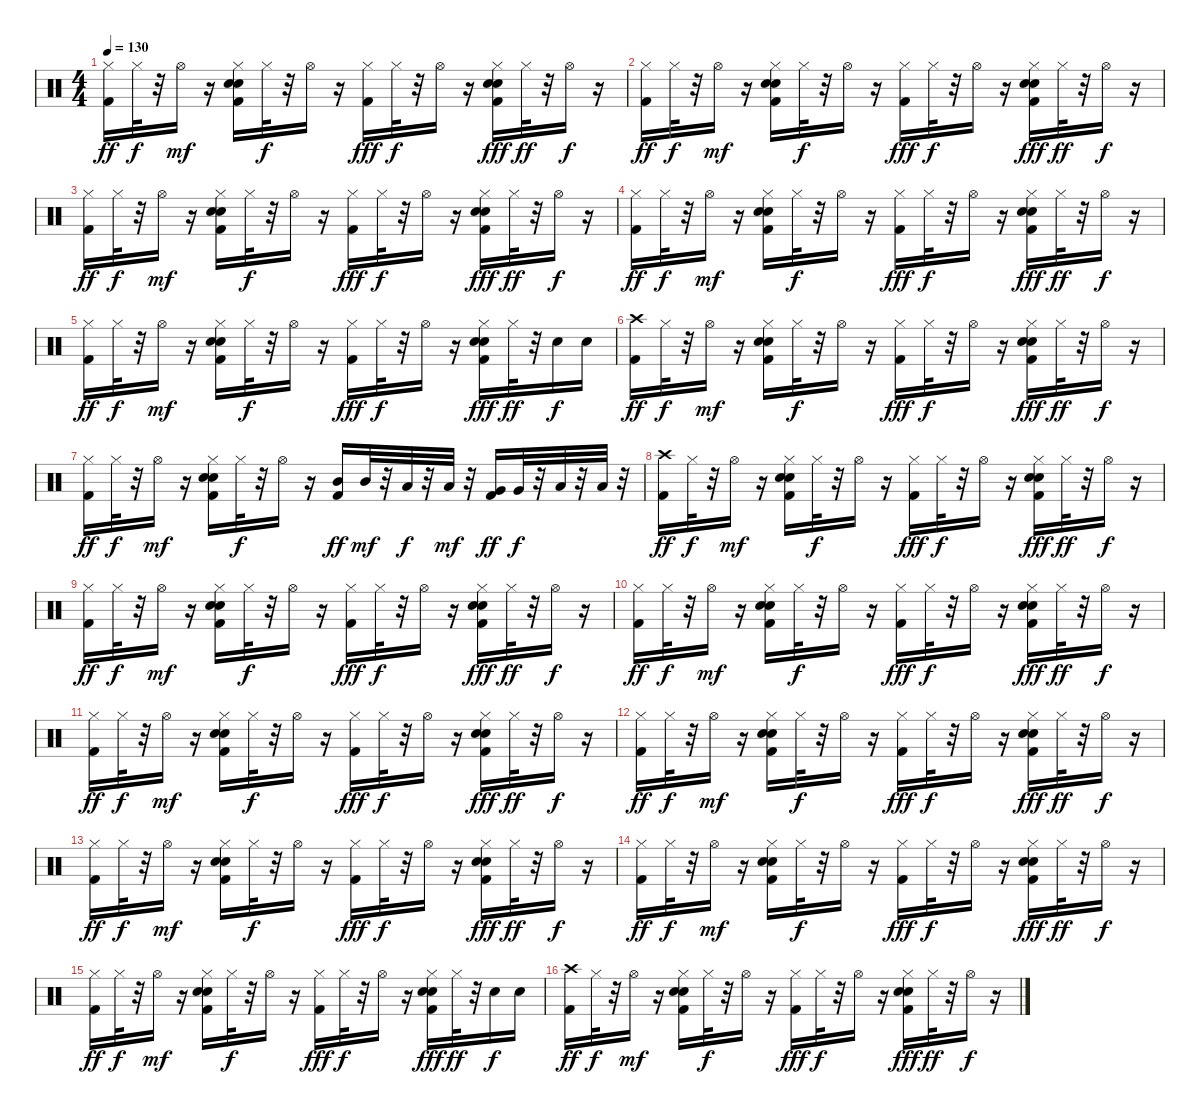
\track "" {instrument percussion}
\staff {score}
\articulation defaults
\ts (4 4)
\tempo 130
\clef neutral
\ks c
("Kick (hit) 2" "Hi-Hat (closed)").16{dy ff} "Hi-Hat (closed)".32{dy f} r.32 "Hi-Hat (open)".16{dy mf} r.16 ("Kick (hit) 2" "Hand Clap (hit)" "Electric Snare (hit)" "Hi-Hat (closed)").16 "Hi-Hat (closed)".32{dy f} r.32 "Hi-Hat (open)".16 r.16 ("Kick (hit) 2" "Hi-Hat (closed)").16{dy fff} "Hi-Hat (closed)".32{dy f} r.32 "Hi-Hat (open)".16 r.16 ("Kick (hit) 2" "Hand Clap (hit)" "Electric Snare (hit)" "Hi-Hat (closed)").16{dy fff} "Hi-Hat (closed)".32{dy ff} r.32 "Hi-Hat (open)".16{dy f} r.16 |
("Kick (hit) 2" "Hi-Hat (closed)").16{dy ff} "Hi-Hat (closed)".32{dy f} r.32 "Hi-Hat (open)".16{dy mf} r.16 ("Kick (hit) 2" "Hand Clap (hit)" "Electric Snare (hit)" "Hi-Hat (closed)").16 "Hi-Hat (closed)".32{dy f} r.32 "Hi-Hat (open)".16 r.16 ("Kick (hit) 2" "Hi-Hat (closed)").16{dy fff} "Hi-Hat (closed)".32{dy f} r.32 "Hi-Hat (open)".16 r.16 ("Kick (hit) 2" "Hand Clap (hit)" "Electric Snare (hit)" "Hi-Hat (closed)").16{dy fff} "Hi-Hat (closed)".32{dy ff} r.32 "Hi-Hat (open)".16{dy f} r.16 |
("Kick (hit) 2" "Hi-Hat (closed)").16{dy ff} "Hi-Hat (closed)".32{dy f} r.32 "Hi-Hat (open)".16{dy mf} r.16 ("Kick (hit) 2" "Hand Clap (hit)" "Electric Snare (hit)" "Hi-Hat (closed)").16 "Hi-Hat (closed)".32{dy f} r.32 "Hi-Hat (open)".16 r.16 ("Kick (hit) 2" "Hi-Hat (closed)").16{dy fff} "Hi-Hat (closed)".32{dy f} r.32 "Hi-Hat (open)".16 r.16 ("Kick (hit) 2" "Hand Clap (hit)" "Electric Snare (hit)" "Hi-Hat (closed)").16{dy fff} "Hi-Hat (closed)".32{dy ff} r.32 "Hi-Hat (open)".16{dy f} r.16 |
("Kick (hit) 2" "Hi-Hat (closed)").16{dy ff} "Hi-Hat (closed)".32{dy f} r.32 "Hi-Hat (open)".16{dy mf} r.16 ("Kick (hit) 2" "Hand Clap (hit)" "Electric Snare (hit)" "Hi-Hat (closed)").16 "Hi-Hat (closed)".32{dy f} r.32 "Hi-Hat (open)".16 r.16 ("Kick (hit) 2" "Hi-Hat (closed)").16{dy fff} "Hi-Hat (closed)".32{dy f} r.32 "Hi-Hat (open)".16 r.16 ("Kick (hit) 2" "Hand Clap (hit)" "Electric Snare (hit)" "Hi-Hat (closed)").16{dy fff} "Hi-Hat (closed)".32{dy ff} r.32 "Hi-Hat (open)".16{dy f} r.16 |
("Kick (hit) 2" "Hi-Hat (closed)").16{dy ff} "Hi-Hat (closed)".32{dy f} r.32 "Hi-Hat (open)".16{dy mf} r.16 ("Kick (hit) 2" "Hand Clap (hit)" "Electric Snare (hit)" "Hi-Hat (closed)").16 "Hi-Hat (closed)".32{dy f} r.32 "Hi-Hat (open)".16 r.16 ("Kick (hit) 2" "Hi-Hat (closed)").16{dy fff} "Hi-Hat (closed)".32{dy f} r.32 "Hi-Hat (open)".16 r.16 ("Kick (hit) 2" "Hand Clap (hit)" "Electric Snare (hit)" "Hi-Hat (closed)").16{dy fff} "Hi-Hat (closed)".32{dy ff} r.32 "Electric Snare (hit)".16{dy f} "Electric Snare (hit)".16 |
("Kick (hit) 2" "Crash high (hit)").16{dy ff} "Hi-Hat (closed)".32{dy f} r.32 "Hi-Hat (open)".16{dy mf} r.16 ("Kick (hit) 2" "Hand Clap (hit)" "Electric Snare (hit)" "Hi-Hat (closed)").16 "Hi-Hat (closed)".32{dy f} r.32 "Hi-Hat (open)".16 r.16 ("Kick (hit) 2" "Hi-Hat (closed)").16{dy fff} "Hi-Hat (closed)".32{dy f} r.32 "Hi-Hat (open)".16 r.16 ("Kick (hit) 2" "Hand Clap (hit)" "Electric Snare (hit)" "Hi-Hat (closed)").16{dy fff} "Hi-Hat (closed)".32{dy ff} r.32 "Hi-Hat (open)".16{dy f} r.16 |
("Kick (hit) 2" "Hi-Hat (closed)").16{dy ff} "Hi-Hat (closed)".32{dy f} r.32 "Hi-Hat (open)".16{dy mf} r.16 ("Kick (hit) 2" "Hand Clap (hit)" "Electric Snare (hit)" "Hi-Hat (closed)").16 "Hi-Hat (closed)".32{dy f} r.32 "Hi-Hat (open)".16 r.16 ("Kick (hit) 2" "Mid Tom (hit)").16{dy ff} "Mid Tom (hit)".32{dy mf} r.32 "Low Tom (hit)".32{dy f} r.32 "Low Tom (hit)".32{dy mf} r.32 ("Kick (hit) 2" "Very Low Tom (hit)").16{dy ff} "Very Low Tom (hit)".32{dy f} r.32 "Low Floor Tom (hit)".32 r.32 "Low Floor Tom (hit)".32 r.32 |
("Kick (hit) 2" "Crash high (hit)").16{dy ff} "Hi-Hat (closed)".32{dy f} r.32 "Hi-Hat (open)".16{dy mf} r.16 ("Kick (hit) 2" "Hand Clap (hit)" "Electric Snare (hit)" "Hi-Hat (closed)").16 "Hi-Hat (closed)".32{dy f} r.32 "Hi-Hat (open)".16 r.16 ("Kick (hit) 2" "Hi-Hat (closed)").16{dy fff} "Hi-Hat (closed)".32{dy f} r.32 "Hi-Hat (open)".16 r.16 ("Kick (hit) 2" "Hand Clap (hit)" "Electric Snare (hit)" "Hi-Hat (closed)").16{dy fff} "Hi-Hat (closed)".32{dy ff} r.32 "Hi-Hat (open)".16{dy f} r.16 |
("Kick (hit) 2" "Hi-Hat (closed)").16{dy ff} "Hi-Hat (closed)".32{dy f} r.32 "Hi-Hat (open)".16{dy mf} r.16 ("Kick (hit) 2" "Hand Clap (hit)" "Electric Snare (hit)" "Hi-Hat (closed)").16 "Hi-Hat (closed)".32{dy f} r.32 "Hi-Hat (open)".16 r.16 ("Kick (hit) 2" "Hi-Hat (closed)").16{dy fff} "Hi-Hat (closed)".32{dy f} r.32 "Hi-Hat (open)".16 r.16 ("Kick (hit) 2" "Hand Clap (hit)" "Electric Snare (hit)" "Hi-Hat (closed)").16{dy fff} "Hi-Hat (closed)".32{dy ff} r.32 "Hi-Hat (open)".16{dy f} r.16 |
("Kick (hit) 2" "Hi-Hat (closed)").16{dy ff} "Hi-Hat (closed)".32{dy f} r.32 "Hi-Hat (open)".16{dy mf} r.16 ("Kick (hit) 2" "Hand Clap (hit)" "Electric Snare (hit)" "Hi-Hat (closed)").16 "Hi-Hat (closed)".32{dy f} r.32 "Hi-Hat (open)".16 r.16 ("Kick (hit) 2" "Hi-Hat (closed)").16{dy fff} "Hi-Hat (closed)".32{dy f} r.32 "Hi-Hat (open)".16 r.16 ("Kick (hit) 2" "Hand Clap (hit)" "Electric Snare (hit)" "Hi-Hat (closed)").16{dy fff} "Hi-Hat (closed)".32{dy ff} r.32 "Hi-Hat (open)".16{dy f} r.16 |
("Kick (hit) 2" "Hi-Hat (closed)").16{dy ff} "Hi-Hat (closed)".32{dy f} r.32 "Hi-Hat (open)".16{dy mf} r.16 ("Kick (hit) 2" "Hand Clap (hit)" "Electric Snare (hit)" "Hi-Hat (closed)").16 "Hi-Hat (closed)".32{dy f} r.32 "Hi-Hat (open)".16 r.16 ("Kick (hit) 2" "Hi-Hat (closed)").16{dy fff} "Hi-Hat (closed)".32{dy f} r.32 "Hi-Hat (open)".16 r.16 ("Kick (hit) 2" "Hand Clap (hit)" "Electric Snare (hit)" "Hi-Hat (closed)").16{dy fff} "Hi-Hat (closed)".32{dy ff} r.32 "Hi-Hat (open)".16{dy f} r.16 |
("Kick (hit) 2" "Hi-Hat (closed)").16{dy ff} "Hi-Hat (closed)".32{dy f} r.32 "Hi-Hat (open)".16{dy mf} r.16 ("Kick (hit) 2" "Hand Clap (hit)" "Electric Snare (hit)" "Hi-Hat (closed)").16 "Hi-Hat (closed)".32{dy f} r.32 "Hi-Hat (open)".16 r.16 ("Kick (hit) 2" "Hi-Hat (closed)").16{dy fff} "Hi-Hat (closed)".32{dy f} r.32 "Hi-Hat (open)".16 r.16 ("Kick (hit) 2" "Hand Clap (hit)" "Electric Snare (hit)" "Hi-Hat (closed)").16{dy fff} "Hi-Hat (closed)".32{dy ff} r.32 "Hi-Hat (open)".16{dy f} r.16 |
("Kick (hit) 2" "Hi-Hat (closed)").16{dy ff} "Hi-Hat (closed)".32{dy f} r.32 "Hi-Hat (open)".16{dy mf} r.16 ("Kick (hit) 2" "Hand Clap (hit)" "Electric Snare (hit)" "Hi-Hat (closed)").16 "Hi-Hat (closed)".32{dy f} r.32 "Hi-Hat (open)".16 r.16 ("Kick (hit) 2" "Hi-Hat (closed)").16{dy fff} "Hi-Hat (closed)".32{dy f} r.32 "Hi-Hat (open)".16 r.16 ("Kick (hit) 2" "Hand Clap (hit)" "Electric Snare (hit)" "Hi-Hat (closed)").16{dy fff} "Hi-Hat (closed)".32{dy ff} r.32 "Hi-Hat (open)".16{dy f} r.16 |
("Kick (hit) 2" "Hi-Hat (closed)").16{dy ff} "Hi-Hat (closed)".32{dy f} r.32 "Hi-Hat (open)".16{dy mf} r.16 ("Kick (hit) 2" "Hand Clap (hit)" "Electric Snare (hit)" "Hi-Hat (closed)").16 "Hi-Hat (closed)".32{dy f} r.32 "Hi-Hat (open)".16 r.16 ("Kick (hit) 2" "Hi-Hat (closed)").16{dy fff} "Hi-Hat (closed)".32{dy f} r.32 "Hi-Hat (open)".16 r.16 ("Kick (hit) 2" "Hand Clap (hit)" "Electric Snare (hit)" "Hi-Hat (closed)").16{dy fff} "Hi-Hat (closed)".32{dy ff} r.32 "Hi-Hat (open)".16{dy f} r.16 |
("Kick (hit) 2" "Hi-Hat (closed)").16{dy ff} "Hi-Hat (closed)".32{dy f} r.32 "Hi-Hat (open)".16{dy mf} r.16 ("Kick (hit) 2" "Hand Clap (hit)" "Electric Snare (hit)" "Hi-Hat (closed)").16 "Hi-Hat (closed)".32{dy f} r.32 "Hi-Hat (open)".16 r.16 ("Kick (hit) 2" "Hi-Hat (closed)").16{dy fff} "Hi-Hat (closed)".32{dy f} r.32 "Hi-Hat (open)".16 r.16 ("Kick (hit) 2" "Hand Clap (hit)" "Electric Snare (hit)" "Hi-Hat (closed)").16{dy fff} "Hi-Hat (closed)".32{dy ff} r.32 "Electric Snare (hit)".16{dy f} "Electric Snare (hit)".16 |
("Kick (hit) 2" "Crash high (hit)").16{dy ff} "Hi-Hat (closed)".32{dy f} r.32 "Hi-Hat (open)".16{dy mf} r.16 ("Kick (hit) 2" "Hand Clap (hit)" "Electric Snare (hit)" "Hi-Hat (closed)").16 "Hi-Hat (closed)".32{dy f} r.32 "Hi-Hat (open)".16 r.16 ("Kick (hit) 2" "Hi-Hat (closed)").16{dy fff} "Hi-Hat (closed)".32{dy f} r.32 "Hi-Hat (open)".16 r.16 ("Kick (hit) 2" "Hand Clap (hit)" "Electric Snare (hit)" "Hi-Hat (closed)").16{dy fff} "Hi-Hat (closed)".32{dy ff} r.32 "Hi-Hat (open)".16{dy f} r.16
